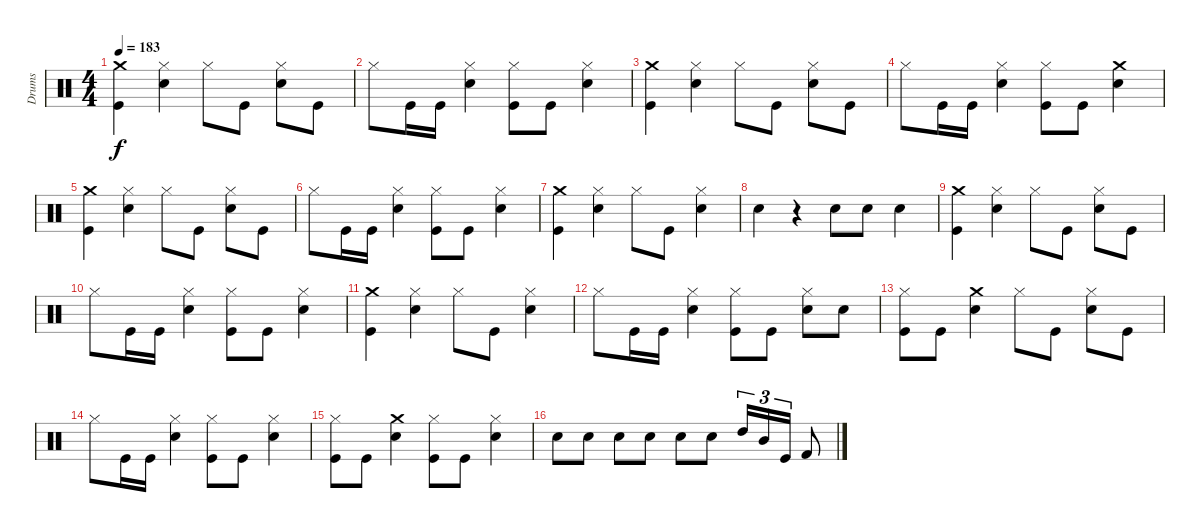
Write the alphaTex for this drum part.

\track ("Drums" "Drums") {instrument percussion}
\staff {score}
\articulation defaults
\ts (4 4)
\tempo 183
\clef neutral
\ks c
("Kick (hit)" "Crash medium (hit)").4{dy f} ("Snare (hit) 2" "Hi-Hat (closed)").4 "Hi-Hat (closed)".8 "Kick (hit)".8 ("Snare (hit) 2" "Hi-Hat (closed)").8 "Kick (hit)".8 |
"Hi-Hat (closed)".8 "Kick (hit)".16 "Kick (hit)".16 ("Snare (hit) 2" "Hi-Hat (closed)").4 ("Kick (hit)" "Hi-Hat (closed)").8 "Kick (hit)".8 ("Snare (hit) 2" "Hi-Hat (closed)").4 |
("Kick (hit)" "Crash medium (hit)").4 ("Hi-Hat (closed)" "Snare (hit) 2").4 "Hi-Hat (closed)".8 "Kick (hit)".8 ("Snare (hit) 2" "Hi-Hat (closed)").8 "Kick (hit)".8 |
"Hi-Hat (closed)".8 "Kick (hit)".16 "Kick (hit)".16 ("Snare (hit) 2" "Hi-Hat (closed)").4 ("Kick (hit)" "Hi-Hat (closed)").8 "Kick (hit)".8 ("Crash medium (hit)" "Snare (hit) 2").4 |
("Kick (hit)" "Crash medium (hit)").4 ("Hi-Hat (closed)" "Snare (hit) 2").4 "Hi-Hat (closed)".8 "Kick (hit)".8 ("Snare (hit) 2" "Hi-Hat (closed)").8 "Kick (hit)".8 |
"Hi-Hat (closed)".8 "Kick (hit)".16 "Kick (hit)".16 ("Snare (hit) 2" "Hi-Hat (closed)").4 ("Kick (hit)" "Hi-Hat (closed)").8 "Kick (hit)".8 ("Snare (hit) 2" "Hi-Hat (closed)").4 |
("Kick (hit)" "Crash medium (hit)").4 ("Hi-Hat (closed)" "Snare (hit) 2").4 "Hi-Hat (closed)".8 "Kick (hit)".8 ("Snare (hit) 2" "Hi-Hat (closed)").4 |
"Snare (hit) 2".4 r.4 "Snare (hit) 2".8 "Snare (hit) 2".8 "Snare (hit) 2".4 |
("Kick (hit)" "Crash medium (hit)").4 ("Hi-Hat (closed)" "Snare (hit) 2").4 "Hi-Hat (closed)".8 "Kick (hit)".8 ("Snare (hit) 2" "Hi-Hat (closed)").8 "Kick (hit)".8 |
"Hi-Hat (closed)".8 "Kick (hit)".16 "Kick (hit)".16 ("Snare (hit) 2" "Hi-Hat (closed)").4 ("Kick (hit)" "Hi-Hat (closed)").8 "Kick (hit)".8 ("Snare (hit) 2" "Hi-Hat (closed)").4 |
("Kick (hit)" "Crash medium (hit)").4 ("Hi-Hat (closed)" "Snare (hit) 2").4 "Hi-Hat (closed)".8 "Kick (hit)".8 ("Snare (hit) 2" "Hi-Hat (closed)").4 |
"Hi-Hat (closed)".8 "Kick (hit)".16 "Kick (hit)".16 ("Snare (hit) 2" "Hi-Hat (closed)").4 ("Kick (hit)" "Hi-Hat (closed)").8 "Kick (hit)".8 ("Snare (hit) 2" "Hi-Hat (closed)").8 "Snare (hit) 2".8 |
("Kick (hit)" "Hi-Hat (closed)").8 "Kick (hit)".8 ("Crash medium (hit)" "Snare (hit) 2").4 "Hi-Hat (closed)".8 "Kick (hit)".8 ("Snare (hit) 2" "Hi-Hat (closed)").8 "Kick (hit)".8 |
"Hi-Hat (closed)".8 "Kick (hit)".16 "Kick (hit)".16 ("Snare (hit) 2" "Hi-Hat (closed)").4 ("Kick (hit)" "Hi-Hat (closed)").8 "Kick (hit)".8 ("Snare (hit) 2" "Hi-Hat (closed)").4 |
("Kick (hit)" "Hi-Hat (closed)").8 "Kick (hit)".8 ("Snare (hit) 2" "Crash medium (hit)").4 ("Kick (hit)" "Hi-Hat (closed)").8 "Kick (hit)".8 ("Snare (hit) 2" "Hi-Hat (closed)").4 |
"Snare (hit) 2".8 "Snare (hit) 2".8 "Snare (hit) 2".8 "Snare (hit) 2".8 "Snare (hit) 2".8 "Snare (hit) 2".8 "High Tom (hit)".16{tu (3 2)} "Mid Tom (hit)".16{tu (3 2)} "Kick (hit)".16{tu (3 2)} "Kick (hit) 2".8
